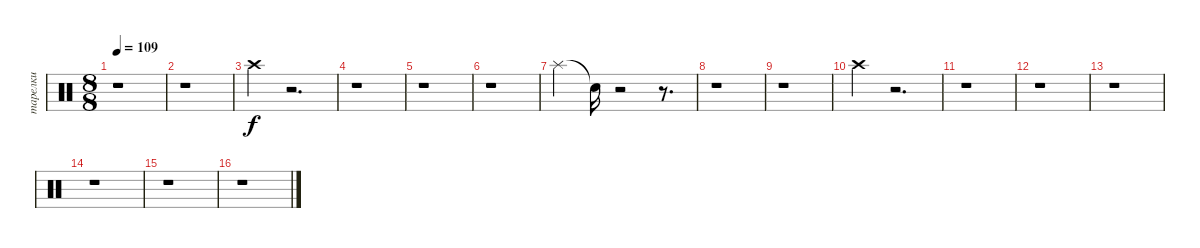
\track ("тарелки" "тарелки") {instrument percussion}
\staff {score}
\articulation defaults
\ts (8 8)
\tempo 109
\clef neutral
\ks c
r.1{dy f} |
r.1 |
"Crash high (hit)".4 r.2{d} |
r.1 |
r.1 |
r.1 |
"Splash (hit)".4 "Snare (hit)"{t}.16 r.2 r.8{d} |
r.1 |
r.1 |
"Crash high (hit)".4 r.2{d} |
r.1 |
r.1 |
r.1 |
r.1 |
r.1 |
r.1
